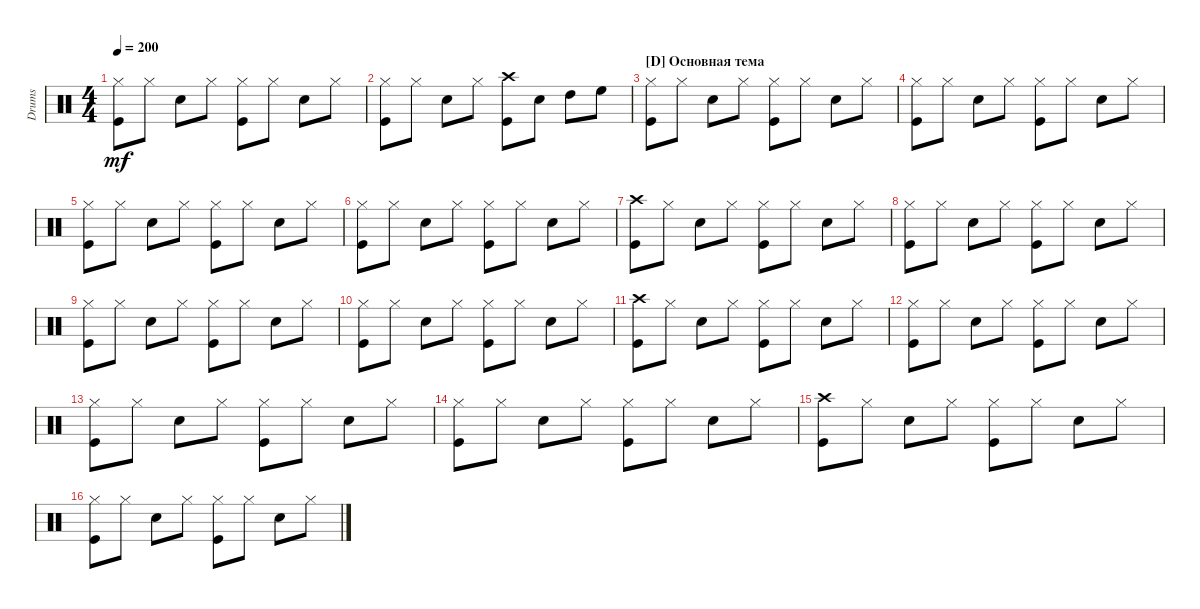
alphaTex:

\track ("Drumkit" "Drums") {instrument percussion}
\staff {score}
\articulation defaults
\ts (4 4)
\tempo 200
\clef neutral
\ks c
("Kick (hit)" "Hi-Hat (closed)").8{dy mf} "Hi-Hat (closed)".8 "Snare (hit) 2".8 "Hi-Hat (closed)".8 ("Kick (hit)" "Hi-Hat (closed)").8 "Hi-Hat (closed)".8 "Snare (hit) 2".8 "Hi-Hat (closed)".8 |
("Kick (hit)" "Hi-Hat (closed)").8 "Hi-Hat (closed)".8 "Snare (hit) 2".8 "Hi-Hat (closed)".8 ("Kick (hit)" "Crash high (hit)").8 "Snare (hit) 2".8 "High Tom (hit)".8 "High Floor Tom (hit)".8 |
\section ("D" "Основная тема")
("Kick (hit)" "Hi-Hat (closed)").8 "Hi-Hat (closed)".8 "Snare (hit) 2".8 "Hi-Hat (closed)".8 ("Kick (hit)" "Hi-Hat (closed)").8 "Hi-Hat (closed)".8 "Snare (hit) 2".8 "Hi-Hat (closed)".8 |
("Kick (hit)" "Hi-Hat (closed)").8 "Hi-Hat (closed)".8 "Snare (hit) 2".8 "Hi-Hat (closed)".8 ("Kick (hit)" "Hi-Hat (closed)").8 "Hi-Hat (closed)".8 "Snare (hit) 2".8 "Hi-Hat (closed)".8 |
("Kick (hit)" "Hi-Hat (closed)").8 "Hi-Hat (closed)".8 "Snare (hit) 2".8 "Hi-Hat (closed)".8 ("Kick (hit)" "Hi-Hat (closed)").8 "Hi-Hat (closed)".8 "Snare (hit) 2".8 "Hi-Hat (closed)".8 |
("Kick (hit)" "Hi-Hat (closed)").8 "Hi-Hat (closed)".8 "Snare (hit) 2".8 "Hi-Hat (closed)".8 ("Kick (hit)" "Hi-Hat (closed)").8 "Hi-Hat (closed)".8 "Snare (hit) 2".8 "Hi-Hat (closed)".8 |
("Kick (hit)" "Crash high (hit)").8 "Hi-Hat (closed)".8 "Snare (hit) 2".8 "Hi-Hat (closed)".8 ("Kick (hit)" "Hi-Hat (closed)").8 "Hi-Hat (closed)".8 "Snare (hit) 2".8 "Hi-Hat (closed)".8 |
("Kick (hit)" "Hi-Hat (closed)").8 "Hi-Hat (closed)".8 "Snare (hit) 2".8 "Hi-Hat (closed)".8 ("Kick (hit)" "Hi-Hat (closed)").8 "Hi-Hat (closed)".8 "Snare (hit) 2".8 "Hi-Hat (closed)".8 |
("Kick (hit)" "Hi-Hat (closed)").8 "Hi-Hat (closed)".8 "Snare (hit) 2".8 "Hi-Hat (closed)".8 ("Kick (hit)" "Hi-Hat (closed)").8 "Hi-Hat (closed)".8 "Snare (hit) 2".8 "Hi-Hat (closed)".8 |
("Kick (hit)" "Hi-Hat (closed)").8 "Hi-Hat (closed)".8 "Snare (hit) 2".8 "Hi-Hat (closed)".8 ("Kick (hit)" "Hi-Hat (closed)").8 "Hi-Hat (closed)".8 "Snare (hit) 2".8 "Hi-Hat (closed)".8 |
("Kick (hit)" "Crash high (hit)").8 "Hi-Hat (closed)".8 "Snare (hit) 2".8 "Hi-Hat (closed)".8 ("Kick (hit)" "Hi-Hat (closed)").8 "Hi-Hat (closed)".8 "Snare (hit) 2".8 "Hi-Hat (closed)".8 |
("Kick (hit)" "Hi-Hat (closed)").8 "Hi-Hat (closed)".8 "Snare (hit) 2".8 "Hi-Hat (closed)".8 ("Kick (hit)" "Hi-Hat (closed)").8 "Hi-Hat (closed)".8 "Snare (hit) 2".8 "Hi-Hat (closed)".8 |
("Kick (hit)" "Hi-Hat (closed)").8 "Hi-Hat (closed)".8 "Snare (hit) 2".8 "Hi-Hat (closed)".8 ("Kick (hit)" "Hi-Hat (closed)").8 "Hi-Hat (closed)".8 "Snare (hit) 2".8 "Hi-Hat (closed)".8 |
("Kick (hit)" "Hi-Hat (closed)").8 "Hi-Hat (closed)".8 "Snare (hit) 2".8 "Hi-Hat (closed)".8 ("Kick (hit)" "Hi-Hat (closed)").8 "Hi-Hat (closed)".8 "Snare (hit) 2".8 "Hi-Hat (closed)".8 |
("Kick (hit)" "Crash high (hit)").8 "Hi-Hat (closed)".8 "Snare (hit) 2".8 "Hi-Hat (closed)".8 ("Kick (hit)" "Hi-Hat (closed)").8 "Hi-Hat (closed)".8 "Snare (hit) 2".8 "Hi-Hat (closed)".8 |
("Kick (hit)" "Hi-Hat (closed)").8 "Hi-Hat (closed)".8 "Snare (hit) 2".8 "Hi-Hat (closed)".8 ("Kick (hit)" "Hi-Hat (closed)").8 "Hi-Hat (closed)".8 "Snare (hit) 2".8 "Hi-Hat (closed)".8
